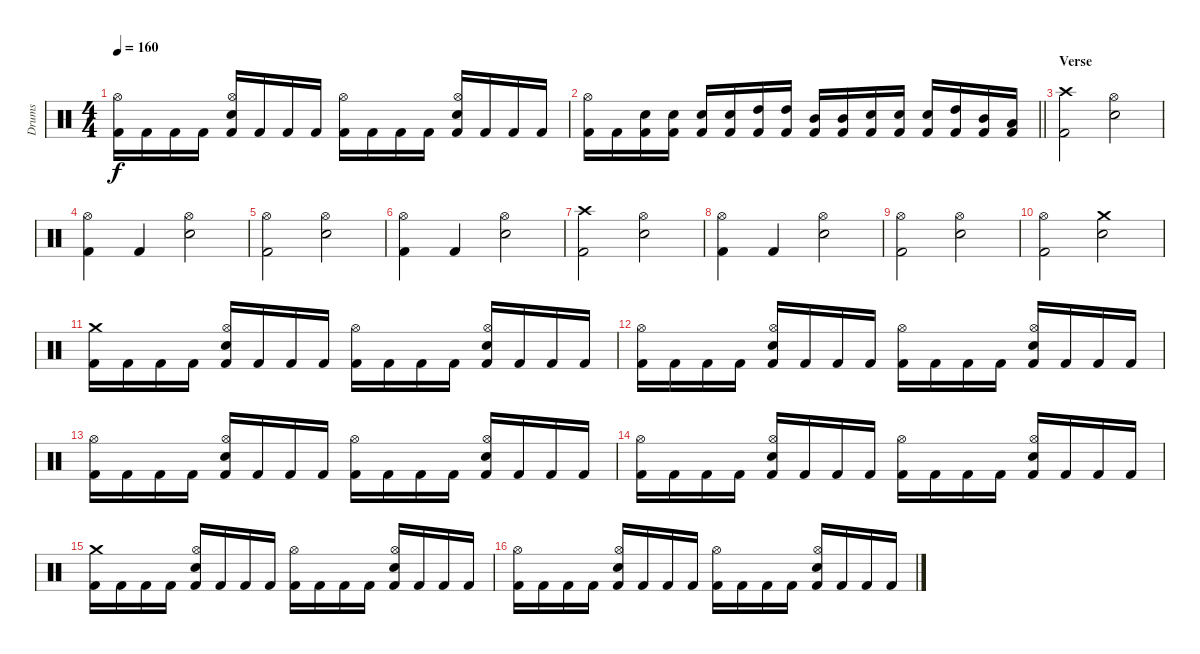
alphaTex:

\track ("Drums" "Drums") {instrument percussion}
\staff {score}
\articulation defaults
\ts (4 4)
\tempo 160
\clef neutral
\ks c
("Kick (hit) 2" "Hi-Hat (open)").16{dy f} "Kick (hit) 2".16 "Kick (hit) 2".16 "Kick (hit) 2".16 ("Kick (hit) 2" "Electric Snare (hit)" "Hi-Hat (open)").16 "Kick (hit) 2".16 "Kick (hit) 2".16 "Kick (hit) 2".16 ("Kick (hit) 2" "Hi-Hat (open)").16 "Kick (hit) 2".16 "Kick (hit) 2".16 "Kick (hit) 2".16 ("Kick (hit) 2" "Electric Snare (hit)" "Hi-Hat (open)").16 "Kick (hit) 2".16 "Kick (hit) 2".16 "Kick (hit) 2".16 |
\barLineRight lightlight
("Kick (hit) 2" "Hi-Hat (open)").16 "Kick (hit) 2".16 ("Kick (hit) 2" "Electric Snare (hit)").16 ("Kick (hit) 2" "Electric Snare (hit)").16 ("Kick (hit) 2" "Electric Snare (hit)").16 ("Kick (hit) 2" "Electric Snare (hit)").16 ("Kick (hit) 2" "High Tom (hit)").16 ("Kick (hit) 2" "High Tom (hit)").16 ("Kick (hit) 2" "Mid Tom (hit)").16 ("Kick (hit) 2" "Mid Tom (hit)").16 ("Kick (hit) 2" "Electric Snare (hit)").16 ("Kick (hit) 2" "Electric Snare (hit)").16 ("Kick (hit) 2" "Electric Snare (hit)").16 ("Kick (hit) 2" "High Tom (hit)").16 ("Kick (hit) 2" "Mid Tom (hit)").16 ("Kick (hit) 2" "Low Tom (hit)").16 |
\section ("" "Verse")
("Crash high (hit)" "Kick (hit) 2").2 ("Hi-Hat (open)" "Electric Snare (hit)").2 |
("Hi-Hat (open)" "Kick (hit) 2").4 "Kick (hit) 2".4 ("Hi-Hat (open)" "Electric Snare (hit)").2 |
("Hi-Hat (open)" "Kick (hit) 2").2 ("Hi-Hat (open)" "Electric Snare (hit)").2 |
("Hi-Hat (open)" "Kick (hit) 2").4 "Kick (hit) 2".4 ("Hi-Hat (open)" "Electric Snare (hit)").2 |
("Crash high (hit)" "Kick (hit) 2").2 ("Hi-Hat (open)" "Electric Snare (hit)").2 |
("Hi-Hat (open)" "Kick (hit) 2").4 "Kick (hit) 2".4 ("Hi-Hat (open)" "Electric Snare (hit)").2 |
("Hi-Hat (open)" "Kick (hit) 2").2 ("Hi-Hat (open)" "Electric Snare (hit)").2 |
("Hi-Hat (open)" "Kick (hit) 2").2 ("Crash medium (hit)" "Electric Snare (hit)").2 |
("Kick (hit) 2" "Crash medium (hit)").16 "Kick (hit) 2".16 "Kick (hit) 2".16 "Kick (hit) 2".16 ("Kick (hit) 2" "Electric Snare (hit)" "Hi-Hat (open)").16 "Kick (hit) 2".16 "Kick (hit) 2".16 "Kick (hit) 2".16 ("Kick (hit) 2" "Hi-Hat (open)").16 "Kick (hit) 2".16 "Kick (hit) 2".16 "Kick (hit) 2".16 ("Kick (hit) 2" "Electric Snare (hit)" "Hi-Hat (open)").16 "Kick (hit) 2".16 "Kick (hit) 2".16 "Kick (hit) 2".16 |
("Kick (hit) 2" "Hi-Hat (open)").16 "Kick (hit) 2".16 "Kick (hit) 2".16 "Kick (hit) 2".16 ("Kick (hit) 2" "Electric Snare (hit)" "Hi-Hat (open)").16 "Kick (hit) 2".16 "Kick (hit) 2".16 "Kick (hit) 2".16 ("Kick (hit) 2" "Hi-Hat (open)").16 "Kick (hit) 2".16 "Kick (hit) 2".16 "Kick (hit) 2".16 ("Kick (hit) 2" "Electric Snare (hit)" "Hi-Hat (open)").16 "Kick (hit) 2".16 "Kick (hit) 2".16 "Kick (hit) 2".16 |
("Kick (hit) 2" "Hi-Hat (open)").16 "Kick (hit) 2".16 "Kick (hit) 2".16 "Kick (hit) 2".16 ("Kick (hit) 2" "Electric Snare (hit)" "Hi-Hat (open)").16 "Kick (hit) 2".16 "Kick (hit) 2".16 "Kick (hit) 2".16 ("Kick (hit) 2" "Hi-Hat (open)").16 "Kick (hit) 2".16 "Kick (hit) 2".16 "Kick (hit) 2".16 ("Kick (hit) 2" "Electric Snare (hit)" "Hi-Hat (open)").16 "Kick (hit) 2".16 "Kick (hit) 2".16 "Kick (hit) 2".16 |
("Kick (hit) 2" "Hi-Hat (open)").16 "Kick (hit) 2".16 "Kick (hit) 2".16 "Kick (hit) 2".16 ("Kick (hit) 2" "Electric Snare (hit)" "Hi-Hat (open)").16 "Kick (hit) 2".16 "Kick (hit) 2".16 "Kick (hit) 2".16 ("Kick (hit) 2" "Hi-Hat (open)").16 "Kick (hit) 2".16 "Kick (hit) 2".16 "Kick (hit) 2".16 ("Kick (hit) 2" "Electric Snare (hit)" "Hi-Hat (open)").16 "Kick (hit) 2".16 "Kick (hit) 2".16 "Kick (hit) 2".16 |
("Kick (hit) 2" "Crash medium (hit)").16 "Kick (hit) 2".16 "Kick (hit) 2".16 "Kick (hit) 2".16 ("Kick (hit) 2" "Electric Snare (hit)" "Hi-Hat (open)").16 "Kick (hit) 2".16 "Kick (hit) 2".16 "Kick (hit) 2".16 ("Kick (hit) 2" "Hi-Hat (open)").16 "Kick (hit) 2".16 "Kick (hit) 2".16 "Kick (hit) 2".16 ("Kick (hit) 2" "Electric Snare (hit)" "Hi-Hat (open)").16 "Kick (hit) 2".16 "Kick (hit) 2".16 "Kick (hit) 2".16 |
("Kick (hit) 2" "Hi-Hat (open)").16 "Kick (hit) 2".16 "Kick (hit) 2".16 "Kick (hit) 2".16 ("Kick (hit) 2" "Electric Snare (hit)" "Hi-Hat (open)").16 "Kick (hit) 2".16 "Kick (hit) 2".16 "Kick (hit) 2".16 ("Kick (hit) 2" "Hi-Hat (open)").16 "Kick (hit) 2".16 "Kick (hit) 2".16 "Kick (hit) 2".16 ("Kick (hit) 2" "Electric Snare (hit)" "Hi-Hat (open)").16 "Kick (hit) 2".16 "Kick (hit) 2".16 "Kick (hit) 2".16
